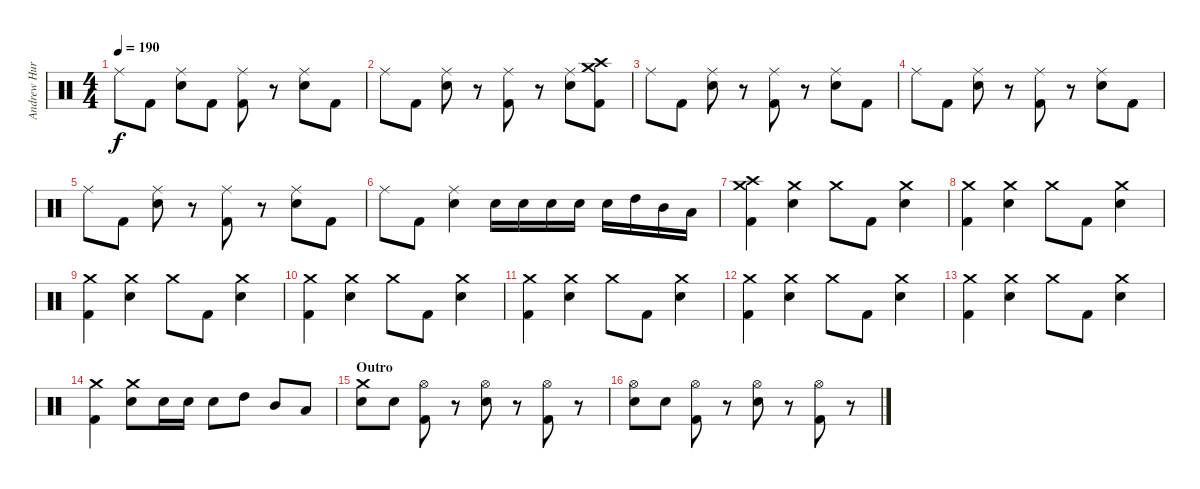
\track ("Andrew Hurley (Drums)" "Andrew Hur") {instrument percussion}
\staff {score}
\articulation defaults
\ts (4 4)
\tempo 190
\clef neutral
\ks c "Ride (middle)".8{dy f} "Kick (hit) 2".8
("Ride (middle)" "Electric Snare (hit)").8 "Kick (hit) 2".8 ("Ride (middle)" "Kick (hit) 2").8 r.8 ("Ride (middle)" "Electric Snare (hit)").8 "Kick (hit) 2".8 |
"Ride (middle)".8 "Kick (hit) 2".8 ("Ride (middle)" "Electric Snare (hit)").8 r.8 ("Ride (middle)" "Kick (hit) 2").8 r.8 ("Ride (middle)" "Electric Snare (hit)").8 ("Crash medium (hit)" "Crash high (hit)" "Kick (hit) 2").8 |
"Ride (middle)".8 "Kick (hit) 2".8 ("Ride (middle)" "Electric Snare (hit)").8 r.8 ("Ride (middle)" "Kick (hit) 2").8 r.8 ("Ride (middle)" "Electric Snare (hit)").8 "Kick (hit) 2".8 |
"Ride (middle)".8 "Kick (hit) 2".8 ("Ride (middle)" "Electric Snare (hit)").8 r.8 ("Ride (middle)" "Kick (hit) 2").8 r.8 ("Ride (middle)" "Electric Snare (hit)").8 "Kick (hit) 2".8 |
"Ride (middle)".8 "Kick (hit) 2".8 ("Ride (middle)" "Electric Snare (hit)").8 r.8 ("Ride (middle)" "Kick (hit) 2").8 r.8 ("Ride (middle)" "Electric Snare (hit)").8 "Kick (hit) 2".8 |
"Ride (middle)".8 "Kick (hit) 2".8 ("Ride (middle)" "Electric Snare (hit)").4 "Electric Snare (hit)".16 "Electric Snare (hit)".16 "Electric Snare (hit)".16 "Electric Snare (hit)".16 "Electric Snare (hit)".16 "High Tom (hit)".16 "Mid Tom (hit)".16 "Low Tom (hit)".16 |
("Crash medium (hit)" "Crash high (hit)" "Kick (hit) 2").4 ("Crash medium (hit)" "Electric Snare (hit)").4 "Crash medium (hit)".8 "Kick (hit) 2".8 ("Crash medium (hit)" "Electric Snare (hit)").4 |
("Crash medium (hit)" "Kick (hit) 2").4 ("Crash medium (hit)" "Electric Snare (hit)").4 "Crash medium (hit)".8 "Kick (hit) 2".8 ("Crash medium (hit)" "Electric Snare (hit)").4 |
("Crash medium (hit)" "Kick (hit) 2").4 ("Crash medium (hit)" "Electric Snare (hit)").4 "Crash medium (hit)".8 "Kick (hit) 2".8 ("Crash medium (hit)" "Electric Snare (hit)").4 |
("Crash medium (hit)" "Kick (hit) 2").4 ("Crash medium (hit)" "Electric Snare (hit)").4 "Crash medium (hit)".8 "Kick (hit) 2".8 ("Crash medium (hit)" "Electric Snare (hit)").4 |
("Crash medium (hit)" "Kick (hit) 2").4 ("Crash medium (hit)" "Electric Snare (hit)").4 "Crash medium (hit)".8 "Kick (hit) 2".8 ("Crash medium (hit)" "Electric Snare (hit)").4 |
("Crash medium (hit)" "Kick (hit) 2").4 ("Crash medium (hit)" "Electric Snare (hit)").4 "Crash medium (hit)".8 "Kick (hit) 2".8 ("Crash medium (hit)" "Electric Snare (hit)").4 |
("Crash medium (hit)" "Kick (hit) 2").4 ("Crash medium (hit)" "Electric Snare (hit)").4 "Crash medium (hit)".8 "Kick (hit) 2".8 ("Crash medium (hit)" "Electric Snare (hit)").4 |
("Crash medium (hit)" "Kick (hit) 2").4 ("Crash medium (hit)" "Electric Snare (hit)").8 "Electric Snare (hit)".16 "Electric Snare (hit)".16 "Electric Snare (hit)".8 "High Tom (hit)".8 "Mid Tom (hit)".8 "Low Tom (hit)".8 |
\section ("" "Outro")
("Crash medium (hit)" "Electric Snare (hit)").8 "Electric Snare (hit)".8 ("Hi-Hat (open)" "Kick (hit) 2").8 r.8 ("Hi-Hat (open)" "Electric Snare (hit)").8 r.8 ("Hi-Hat (open)" "Kick (hit) 2").8 r.8 |
("Hi-Hat (open)" "Electric Snare (hit)").8 "Electric Snare (hit)".8 ("Hi-Hat (open)" "Kick (hit) 2").8 r.8 ("Hi-Hat (open)" "Electric Snare (hit)").8 r.8 ("Hi-Hat (open)" "Kick (hit) 2").8 r.8
